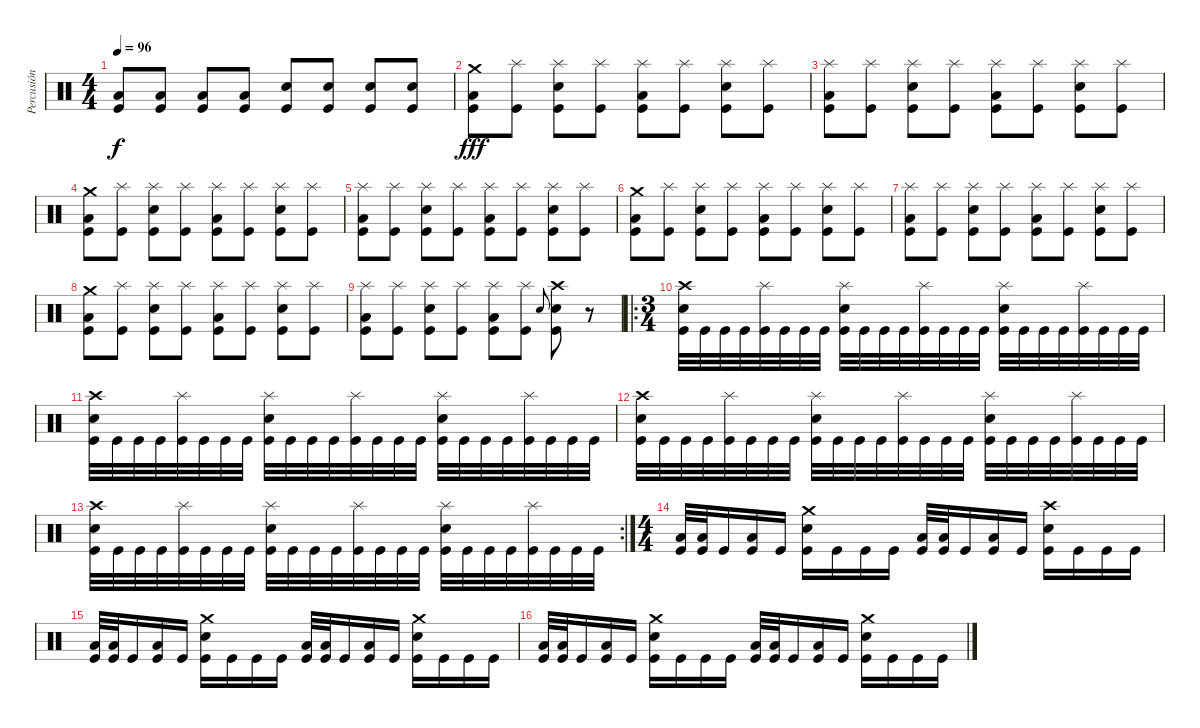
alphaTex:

\track ("Percusión" "Percusión") {instrument percussion}
\staff {score}
\articulation defaults
\ts (4 4)
\tempo 96
\clef neutral
\ks c
("Low Floor Tom (hit)" "Kick (hit)").8{dy f} ("Low Floor Tom (hit)" "Kick (hit)").8 ("Low Floor Tom (hit)" "Kick (hit)").8 ("Low Floor Tom (hit)" "Kick (hit)").8 ("Snare (hit) 2" "Kick (hit)").8 ("Snare (hit) 2" "Kick (hit)").8 ("Snare (hit) 2" "Kick (hit)").8 ("Snare (hit) 2" "Kick (hit)").8 |
("Crash medium (hit)" "Low Floor Tom (hit)" "Kick (hit)").8{dy fff} ("Splash (hit)" "Kick (hit)").8 ("Splash (hit)" "Snare (hit) 2" "Kick (hit)").8 ("Splash (hit)" "Kick (hit)").8 ("Splash (hit)" "Low Floor Tom (hit)" "Kick (hit)").8 ("Splash (hit)" "Kick (hit)").8 ("Splash (hit)" "Snare (hit) 2" "Kick (hit)").8 ("Splash (hit)" "Kick (hit)").8 |
("Splash (hit)" "Low Floor Tom (hit)" "Kick (hit)").8 ("Splash (hit)" "Kick (hit)").8 ("Splash (hit)" "Snare (hit) 2" "Kick (hit)").8 ("Splash (hit)" "Kick (hit)").8 ("Splash (hit)" "Low Floor Tom (hit)" "Kick (hit)").8 ("Splash (hit)" "Kick (hit)").8 ("Splash (hit)" "Snare (hit) 2" "Kick (hit)").8 ("Splash (hit)" "Kick (hit)").8 |
("Crash medium (hit)" "Low Floor Tom (hit)" "Kick (hit)").8 ("Splash (hit)" "Kick (hit)").8 ("Splash (hit)" "Snare (hit) 2" "Kick (hit)").8 ("Splash (hit)" "Kick (hit)").8 ("Splash (hit)" "Low Floor Tom (hit)" "Kick (hit)").8 ("Splash (hit)" "Kick (hit)").8 ("Splash (hit)" "Snare (hit) 2" "Kick (hit)").8 ("Splash (hit)" "Kick (hit)").8 |
("Splash (hit)" "Low Floor Tom (hit)" "Kick (hit)").8 ("Splash (hit)" "Kick (hit)").8 ("Splash (hit)" "Snare (hit) 2" "Kick (hit)").8 ("Splash (hit)" "Kick (hit)").8 ("Splash (hit)" "Low Floor Tom (hit)" "Kick (hit)").8 ("Splash (hit)" "Kick (hit)").8 ("Splash (hit)" "Snare (hit) 2" "Kick (hit)").8 ("Splash (hit)" "Kick (hit)").8 |
("Crash medium (hit)" "Low Floor Tom (hit)" "Kick (hit)").8 ("Splash (hit)" "Kick (hit)").8 ("Splash (hit)" "Snare (hit) 2" "Kick (hit)").8 ("Splash (hit)" "Kick (hit)").8 ("Splash (hit)" "Low Floor Tom (hit)" "Kick (hit)").8 ("Splash (hit)" "Kick (hit)").8 ("Splash (hit)" "Snare (hit) 2" "Kick (hit)").8 ("Splash (hit)" "Kick (hit)").8 |
("Splash (hit)" "Low Floor Tom (hit)" "Kick (hit)").8 ("Splash (hit)" "Kick (hit)").8 ("Splash (hit)" "Snare (hit) 2" "Kick (hit)").8 ("Splash (hit)" "Kick (hit)").8 ("Splash (hit)" "Low Floor Tom (hit)" "Kick (hit)").8 ("Splash (hit)" "Kick (hit)").8 ("Splash (hit)" "Snare (hit) 2" "Kick (hit)").8 ("Splash (hit)" "Kick (hit)").8 |
("Crash medium (hit)" "Low Floor Tom (hit)" "Kick (hit)").8 ("Splash (hit)" "Kick (hit)").8 ("Splash (hit)" "Snare (hit) 2" "Kick (hit)").8 ("Splash (hit)" "Kick (hit)").8 ("Splash (hit)" "Low Floor Tom (hit)" "Kick (hit)").8 ("Splash (hit)" "Kick (hit)").8 ("Splash (hit)" "Snare (hit) 2" "Kick (hit)").8 ("Splash (hit)" "Kick (hit)").8 |
("Splash (hit)" "Low Floor Tom (hit)" "Kick (hit)").8 ("Splash (hit)" "Kick (hit)").8 ("Splash (hit)" "Snare (hit) 2" "Kick (hit)").8 ("Splash (hit)" "Kick (hit)").8 ("Splash (hit)" "Low Floor Tom (hit)" "Kick (hit)").8 ("Splash (hit)" "Kick (hit)").8 "Snare (hit) 2".8{gr onbeat} ("Crash high (hit)" "Snare (hit) 2" "Kick (hit)").8 r.8 |
\ro
\ts (3 4)
("Crash high (hit)" "Snare (hit) 2" "Kick (hit)").32 "Kick (hit)".32 "Kick (hit)".32 "Kick (hit)".32 ("Splash (hit)" "Kick (hit)").32 "Kick (hit)".32 "Kick (hit)".32 "Kick (hit)".32 ("Splash (hit)" "Snare (hit) 2" "Kick (hit)").32 "Kick (hit)".32 "Kick (hit)".32 "Kick (hit)".32 ("Splash (hit)" "Kick (hit)").32 "Kick (hit)".32 "Kick (hit)".32 "Kick (hit)".32 ("Splash (hit)" "Snare (hit) 2" "Kick (hit)").32 "Kick (hit)".32 "Kick (hit)".32 "Kick (hit)".32 ("Splash (hit)" "Kick (hit)").32 "Kick (hit)".32 "Kick (hit)".32 "Kick (hit)".32 |
("Crash high (hit)" "Snare (hit) 2" "Kick (hit)").32 "Kick (hit)".32 "Kick (hit)".32 "Kick (hit)".32 ("Splash (hit)" "Kick (hit)").32 "Kick (hit)".32 "Kick (hit)".32 "Kick (hit)".32 ("Splash (hit)" "Snare (hit) 2" "Kick (hit)").32 "Kick (hit)".32 "Kick (hit)".32 "Kick (hit)".32 ("Splash (hit)" "Kick (hit)").32 "Kick (hit)".32 "Kick (hit)".32 "Kick (hit)".32 ("Splash (hit)" "Snare (hit) 2" "Kick (hit)").32 "Kick (hit)".32 "Kick (hit)".32 "Kick (hit)".32 ("Splash (hit)" "Kick (hit)").32 "Kick (hit)".32 "Kick (hit)".32 "Kick (hit)".32 |
("Crash high (hit)" "Snare (hit) 2" "Kick (hit)").32 "Kick (hit)".32 "Kick (hit)".32 "Kick (hit)".32 ("Splash (hit)" "Kick (hit)").32 "Kick (hit)".32 "Kick (hit)".32 "Kick (hit)".32 ("Splash (hit)" "Snare (hit) 2" "Kick (hit)").32 "Kick (hit)".32 "Kick (hit)".32 "Kick (hit)".32 ("Splash (hit)" "Kick (hit)").32 "Kick (hit)".32 "Kick (hit)".32 "Kick (hit)".32 ("Splash (hit)" "Snare (hit) 2" "Kick (hit)").32 "Kick (hit)".32 "Kick (hit)".32 "Kick (hit)".32 ("Splash (hit)" "Kick (hit)").32 "Kick (hit)".32 "Kick (hit)".32 "Kick (hit)".32 |
\rc 2
("Crash high (hit)" "Snare (hit) 2" "Kick (hit)").32 "Kick (hit)".32 "Kick (hit)".32 "Kick (hit)".32 ("Splash (hit)" "Kick (hit)").32 "Kick (hit)".32 "Kick (hit)".32 "Kick (hit)".32 ("Splash (hit)" "Snare (hit) 2" "Kick (hit)").32 "Kick (hit)".32 "Kick (hit)".32 "Kick (hit)".32 ("Splash (hit)" "Kick (hit)").32 "Kick (hit)".32 "Kick (hit)".32 "Kick (hit)".32 ("Splash (hit)" "Snare (hit) 2" "Kick (hit)").32 "Kick (hit)".32 "Kick (hit)".32 "Kick (hit)".32 ("Splash (hit)" "Kick (hit)").32 "Kick (hit)".32 "Kick (hit)".32 "Kick (hit)".32 |
\ts (4 4)
("Low Floor Tom (hit)" "Kick (hit)").32 ("Low Floor Tom (hit)" "Kick (hit)").32 "Kick (hit)".16 ("Low Floor Tom (hit)" "Kick (hit)").16 "Kick (hit)".16 ("Crash medium (hit)" "Snare (hit) 2" "Kick (hit)").16 "Kick (hit)".16 "Kick (hit)".16 "Kick (hit)".16 ("Low Floor Tom (hit)" "Kick (hit)").32 ("Low Floor Tom (hit)" "Kick (hit)").32 "Kick (hit)".16 ("Low Floor Tom (hit)" "Kick (hit)").16 "Kick (hit)".16 ("Crash high (hit)" "Snare (hit) 2" "Kick (hit)").16 "Kick (hit)".16 "Kick (hit)".16 "Kick (hit)".16 |
("Low Floor Tom (hit)" "Kick (hit)").32 ("Low Floor Tom (hit)" "Kick (hit)").32 "Kick (hit)".16 ("Low Floor Tom (hit)" "Kick (hit)").16 "Kick (hit)".16 ("Crash medium (hit)" "Snare (hit) 2" "Kick (hit)").16 "Kick (hit)".16 "Kick (hit)".16 "Kick (hit)".16 ("Low Floor Tom (hit)" "Kick (hit)").32 ("Low Floor Tom (hit)" "Kick (hit)").32 "Kick (hit)".16 ("Low Floor Tom (hit)" "Kick (hit)").16 "Kick (hit)".16 ("Crash medium (hit)" "Snare (hit) 2" "Kick (hit)").16 "Kick (hit)".16 "Kick (hit)".16 "Kick (hit)".16 |
("Low Floor Tom (hit)" "Kick (hit)").32 ("Low Floor Tom (hit)" "Kick (hit)").32 "Kick (hit)".16 ("Low Floor Tom (hit)" "Kick (hit)").16 "Kick (hit)".16 ("Crash medium (hit)" "Snare (hit) 2" "Kick (hit)").16 "Kick (hit)".16 "Kick (hit)".16 "Kick (hit)".16 ("Low Floor Tom (hit)" "Kick (hit)").32 ("Low Floor Tom (hit)" "Kick (hit)").32 "Kick (hit)".16 ("Low Floor Tom (hit)" "Kick (hit)").16 "Kick (hit)".16 ("Crash medium (hit)" "Snare (hit) 2" "Kick (hit)").16 "Kick (hit)".16 "Kick (hit)".16 "Kick (hit)".16
